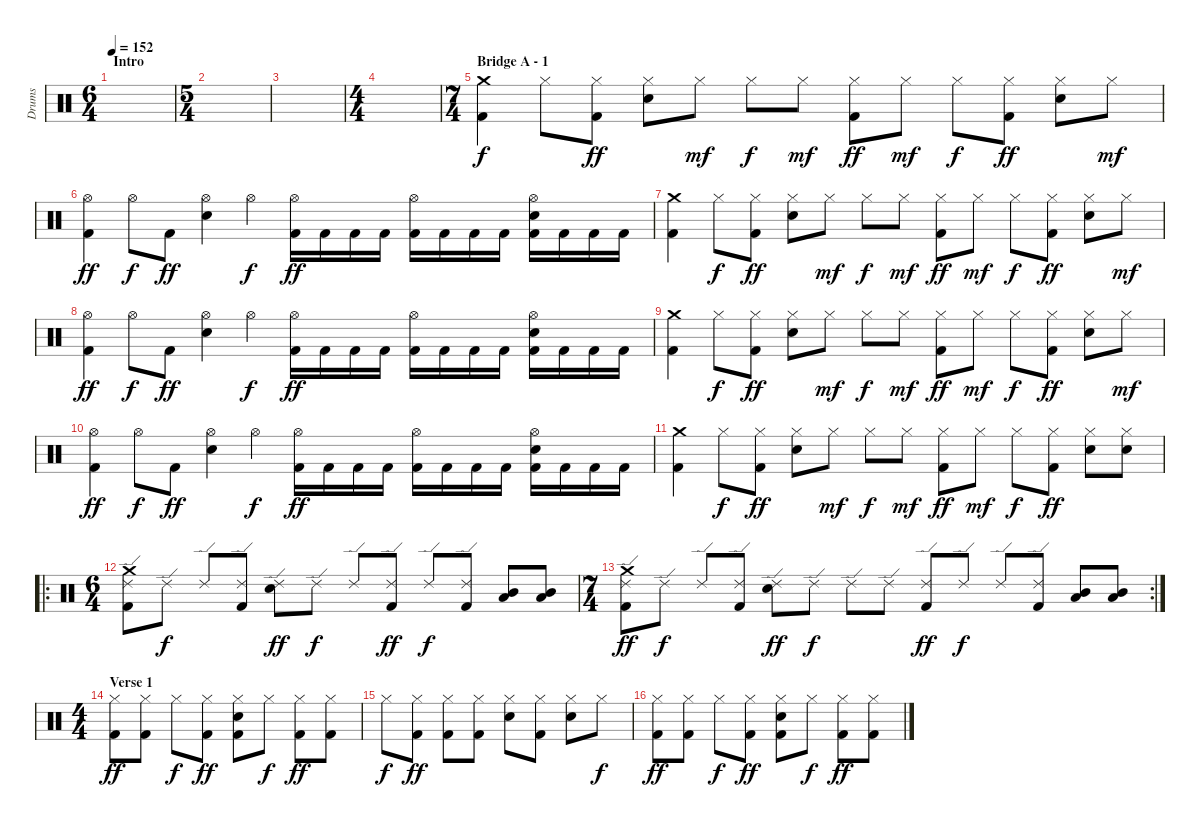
\track ("Drums" "Drums") {instrument percussion}
\staff {score}
\articulation defaults
\ts (6 4)
\section ("" "Intro")
\tempo 152
\clef neutral
\ks c
|
\ts (5 4)
|
|
\ts (4 4)
|
\ts (7 4)
\section ("" "Bridge A - 1")
("Crash medium (hit)" "Kick (hit) 2").4 "Hi-Hat (closed)".8{dy f} ("Hi-Hat (closed)" "Kick (hit) 2").8{dy ff} ("Hi-Hat (closed)" "Electric Snare (hit)").8 "Hi-Hat (closed)".8{dy mf} "Hi-Hat (closed)".8{dy f} "Hi-Hat (closed)".8{dy mf} ("Hi-Hat (closed)" "Kick (hit) 2").8{dy ff} "Hi-Hat (closed)".8{dy mf} "Hi-Hat (closed)".8{dy f} ("Hi-Hat (closed)" "Kick (hit) 2").8{dy ff} ("Hi-Hat (closed)" "Electric Snare (hit)").8 "Hi-Hat (closed)".8{dy mf} |
("Hi-Hat (open)" "Kick (hit) 2").4{dy ff} "Hi-Hat (open)".8{dy f} "Kick (hit) 2".8{dy ff} ("Hi-Hat (open)" "Electric Snare (hit)").4 "Hi-Hat (open)".4{dy f} ("Hi-Hat (open)" "Kick (hit) 2").16{dy ff} "Kick (hit) 2".16 "Kick (hit) 2".16 "Kick (hit) 2".16 ("Hi-Hat (open)" "Kick (hit) 2").16 "Kick (hit) 2".16 "Kick (hit) 2".16 "Kick (hit) 2".16 ("Hi-Hat (open)" "Electric Snare (hit)" "Kick (hit) 2").16 "Kick (hit) 2".16 "Kick (hit) 2".16 "Kick (hit) 2".16 |
("Crash medium (hit)" "Kick (hit) 2").4 "Hi-Hat (closed)".8{dy f} ("Hi-Hat (closed)" "Kick (hit) 2").8{dy ff} ("Hi-Hat (closed)" "Electric Snare (hit)").8 "Hi-Hat (closed)".8{dy mf} "Hi-Hat (closed)".8{dy f} "Hi-Hat (closed)".8{dy mf} ("Hi-Hat (closed)" "Kick (hit) 2").8{dy ff} "Hi-Hat (closed)".8{dy mf} "Hi-Hat (closed)".8{dy f} ("Hi-Hat (closed)" "Kick (hit) 2").8{dy ff} ("Hi-Hat (closed)" "Electric Snare (hit)").8 "Hi-Hat (closed)".8{dy mf} |
("Hi-Hat (open)" "Kick (hit) 2").4{dy ff} "Hi-Hat (open)".8{dy f} "Kick (hit) 2".8{dy ff} ("Hi-Hat (open)" "Electric Snare (hit)").4 "Hi-Hat (open)".4{dy f} ("Hi-Hat (open)" "Kick (hit) 2").16{dy ff} "Kick (hit) 2".16 "Kick (hit) 2".16 "Kick (hit) 2".16 ("Hi-Hat (open)" "Kick (hit) 2").16 "Kick (hit) 2".16 "Kick (hit) 2".16 "Kick (hit) 2".16 ("Hi-Hat (open)" "Electric Snare (hit)" "Kick (hit) 2").16 "Kick (hit) 2".16 "Kick (hit) 2".16 "Kick (hit) 2".16 |
("Crash medium (hit)" "Kick (hit) 2").4 "Hi-Hat (closed)".8{dy f} ("Hi-Hat (closed)" "Kick (hit) 2").8{dy ff} ("Hi-Hat (closed)" "Electric Snare (hit)").8 "Hi-Hat (closed)".8{dy mf} "Hi-Hat (closed)".8{dy f} "Hi-Hat (closed)".8{dy mf} ("Hi-Hat (closed)" "Kick (hit) 2").8{dy ff} "Hi-Hat (closed)".8{dy mf} "Hi-Hat (closed)".8{dy f} ("Hi-Hat (closed)" "Kick (hit) 2").8{dy ff} ("Hi-Hat (closed)" "Electric Snare (hit)").8 "Hi-Hat (closed)".8{dy mf} |
("Hi-Hat (open)" "Kick (hit) 2").4{dy ff} "Hi-Hat (open)".8{dy f} "Kick (hit) 2".8{dy ff} ("Hi-Hat (open)" "Electric Snare (hit)").4 "Hi-Hat (open)".4{dy f} ("Hi-Hat (open)" "Kick (hit) 2").16{dy ff} "Kick (hit) 2".16 "Kick (hit) 2".16 "Kick (hit) 2".16 ("Hi-Hat (open)" "Kick (hit) 2").16 "Kick (hit) 2".16 "Kick (hit) 2".16 "Kick (hit) 2".16 ("Hi-Hat (open)" "Electric Snare (hit)" "Kick (hit) 2").16 "Kick (hit) 2".16 "Kick (hit) 2".16 "Kick (hit) 2".16 |
("Crash medium (hit)" "Kick (hit) 2").4 "Hi-Hat (closed)".8{dy f} ("Hi-Hat (closed)" "Kick (hit) 2").8{dy ff} ("Hi-Hat (closed)" "Electric Snare (hit)").8 "Hi-Hat (closed)".8{dy mf} "Hi-Hat (closed)".8{dy f} "Hi-Hat (closed)".8{dy mf} ("Hi-Hat (closed)" "Kick (hit) 2").8{dy ff} "Hi-Hat (closed)".8{dy mf} "Hi-Hat (closed)".8{dy f} ("Hi-Hat (closed)" "Kick (hit) 2").8{dy ff} ("Hi-Hat (closed)" "Electric Snare (hit)").8 ("Hi-Hat (closed)" "Electric Snare (hit)").8 |
\ro
\ts (6 4)
("Ride (edge) 2" "Crash medium (hit)" "Kick (hit) 2").8 "Ride (edge) 2".8{dy f} "Ride (edge) 2".8 ("Ride (edge) 2" "Kick (hit) 2").8 ("Ride (edge) 2" "Electric Snare (hit)").8{dy ff} "Ride (edge) 2".8{dy f} "Ride (edge) 2".8 ("Ride (edge) 2" "Kick (hit) 2").8{dy ff} "Ride (edge) 2".8{dy f} ("Ride (edge) 2" "Kick (hit) 2").8 ("Mid Tom (hit)" "Low Tom (hit)").8 ("Mid Tom (hit)" "Low Tom (hit)").8 |
\rc 2
\ts (7 4)
("Ride (edge) 2" "Crash medium (hit)" "Kick (hit) 2").8{dy ff} "Ride (edge) 2".8{dy f} "Ride (edge) 2".8 ("Ride (edge) 2" "Kick (hit) 2").8 ("Ride (edge) 2" "Electric Snare (hit)").8{dy ff} "Ride (edge) 2".8{dy f} "Ride (edge) 2".8 "Ride (edge) 2".8 ("Ride (edge) 2" "Kick (hit) 2").8{dy ff} "Ride (edge) 2".8{dy f} "Ride (edge) 2".8 ("Ride (edge) 2" "Kick (hit) 2").8 ("Mid Tom (hit)" "Low Tom (hit)").8 ("Mid Tom (hit)" "Low Tom (hit)").8 |
\ts (4 4)
\section ("" "Verse 1")
("Hi-Hat (closed)" "Kick (hit) 2").8{dy ff} ("Hi-Hat (closed)" "Kick (hit) 2").8 "Hi-Hat (closed)".8{dy f} ("Hi-Hat (closed)" "Kick (hit) 2").8{dy ff} ("Hi-Hat (closed)" "Electric Snare (hit)" "Kick (hit) 2").8 "Hi-Hat (closed)".8{dy f} ("Hi-Hat (closed)" "Kick (hit) 2").8{dy ff} ("Hi-Hat (closed)" "Kick (hit) 2").8 |
"Hi-Hat (closed)".8{dy f} ("Hi-Hat (closed)" "Kick (hit) 2").8{dy ff} ("Hi-Hat (closed)" "Kick (hit) 2").8 ("Hi-Hat (closed)" "Kick (hit) 2").8 ("Hi-Hat (closed)" "Electric Snare (hit)").8 ("Hi-Hat (closed)" "Kick (hit) 2").8 ("Hi-Hat (closed)" "Electric Snare (hit)").8 "Hi-Hat (closed)".8{dy f} |
("Hi-Hat (closed)" "Kick (hit) 2").8{dy ff} ("Hi-Hat (closed)" "Kick (hit) 2").8 "Hi-Hat (closed)".8{dy f} ("Hi-Hat (closed)" "Kick (hit) 2").8{dy ff} ("Hi-Hat (closed)" "Electric Snare (hit)" "Kick (hit) 2").8 "Hi-Hat (closed)".8{dy f} ("Hi-Hat (closed)" "Kick (hit) 2").8{dy ff} ("Hi-Hat (closed)" "Kick (hit) 2").8
